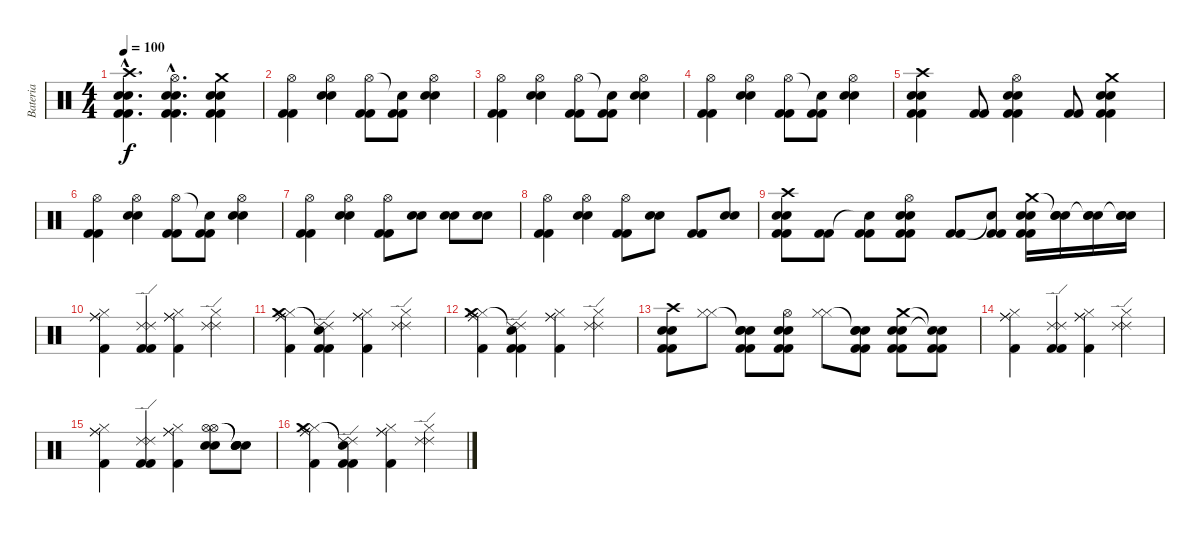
\track ("Bateria" "Bateria") {instrument percussion}
\staff {score}
\articulation defaults
\ts (4 4)
\tempo 100
\clef neutral
\ks c
("Crash high (hit)"{hac} "Snare (hit) 2"{hac} "Snare (hit) 2"{hac} "Kick (hit) 2"{hac} "Kick (hit) 2"{hac}).4{d dy f} ("Hi-Hat (open)"{hac} "Snare (hit) 2"{hac} "Snare (hit) 2"{hac} "Kick (hit) 2"{hac} "Kick (hit) 2"{hac}).4{d} ("Crash medium (hit)" "Snare (hit) 2" "Snare (hit) 2" "Kick (hit) 2" "Kick (hit) 2").4 |
("Kick (hit) 2" "Kick (hit) 2" "Hi-Hat (open)").4 ("Electric Snare (hit)" "Electric Snare (hit)" "Hi-Hat (open)").4 ("Kick (hit) 2" "Kick (hit) 2" "Hi-Hat (open)").8 ("Kick (hit) 2" "Kick (hit) 2" "Snare (hit)"{t}).8 ("Electric Snare (hit)" "Electric Snare (hit)" "Hi-Hat (open)").4 |
("Kick (hit) 2" "Kick (hit) 2" "Hi-Hat (open)").4 ("Electric Snare (hit)" "Electric Snare (hit)" "Hi-Hat (open)").4 ("Kick (hit) 2" "Kick (hit) 2" "Hi-Hat (open)").8 ("Kick (hit) 2" "Kick (hit) 2" "Snare (hit)"{t}).8 ("Electric Snare (hit)" "Electric Snare (hit)" "Hi-Hat (open)").4 |
("Kick (hit) 2" "Kick (hit) 2" "Hi-Hat (open)").4 ("Electric Snare (hit)" "Electric Snare (hit)" "Hi-Hat (open)").4 ("Kick (hit) 2" "Kick (hit) 2" "Hi-Hat (open)").8 ("Kick (hit) 2" "Kick (hit) 2" "Snare (hit)"{t}).8 ("Electric Snare (hit)" "Electric Snare (hit)" "Hi-Hat (open)").4 |
("Kick (hit) 2" "Kick (hit) 2" "Snare (hit) 2" "Snare (hit) 2" "Crash high (hit)").4 ("Kick (hit) 2" "Kick (hit) 2").8 ("Kick (hit) 2" "Kick (hit) 2" "Snare (hit) 2" "Snare (hit) 2" "Hi-Hat (open)").4 ("Kick (hit) 2" "Kick (hit) 2").8 ("Kick (hit) 2" "Kick (hit) 2" "Snare (hit) 2" "Snare (hit) 2" "Crash medium (hit)").4 |
("Kick (hit) 2" "Kick (hit) 2" "Hi-Hat (open)").4 ("Electric Snare (hit)" "Electric Snare (hit)" "Hi-Hat (open)").4 ("Kick (hit) 2" "Kick (hit) 2" "Hi-Hat (open)").8 ("Kick (hit) 2" "Kick (hit) 2" "Snare (hit)"{t}).8 ("Electric Snare (hit)" "Electric Snare (hit)" "Hi-Hat (open)").4 |
("Kick (hit) 2" "Kick (hit) 2" "Hi-Hat (open)").4 ("Electric Snare (hit)" "Electric Snare (hit)" "Hi-Hat (open)").4 ("Kick (hit) 2" "Kick (hit) 2" "Hi-Hat (open)").8 ("Snare (hit) 2" "Snare (hit) 2").8 ("Snare (hit) 2" "Snare (hit) 2").8 ("Snare (hit) 2" "Snare (hit) 2").8 |
("Kick (hit) 2" "Kick (hit) 2" "Hi-Hat (open)").4 ("Electric Snare (hit)" "Electric Snare (hit)" "Hi-Hat (open)").4 ("Kick (hit) 2" "Kick (hit) 2" "Hi-Hat (open)").8 ("Snare (hit) 2" "Snare (hit) 2").8 ("Kick (hit) 2" "Kick (hit) 2").8 ("Snare (hit) 2" "Snare (hit) 2").8 |
("Crash high (hit)" "Snare (hit) 2" "Snare (hit) 2" "Kick (hit) 2" "Kick (hit) 2").8 ("Kick (hit) 2" "Kick (hit) 2").8 ("Snare (hit)"{t} "Kick (hit) 2" "Kick (hit) 2").8 ("Hi-Hat (open)" "Snare (hit) 2" "Snare (hit) 2" "Kick (hit) 2" "Kick (hit) 2").8 ("Kick (hit) 2" "Kick (hit) 2").8 ("Snare (hit)"{t} "Kick (hit) 2" "Kick (hit) 2").8 ("Crash medium (hit)" "Snare (hit) 2" "Snare (hit) 2" "Kick (hit) 2" "Kick (hit) 2").16 ("Snare (hit)"{t} "Snare (hit) 2" "Snare (hit) 2").16 ("Snare (hit)"{t} "Snare (hit) 2" "Snare (hit) 2").16 ("Snare (hit)"{t} "Snare (hit) 2" "Snare (hit) 2").16 |
("Ride (middle)" "Ride (middle)" "Hi-Hat (closed)" "Kick (hit) 2").4 ("Kick (hit) 2" "Kick (hit) 2" "Ride (edge) 2" "Ride (edge) 2").4 ("Ride (middle)" "Ride (middle)" "Hi-Hat (closed)" "Kick (hit) 2").4 ("Ride (edge) 2" "Ride (edge) 2" "Hi-Hat (closed)").4 |
("Ride (middle)" "Ride (middle)" "Hi-Hat (closed)" "Kick (hit) 2" "Crash medium (hit)").4 ("Kick (hit) 2" "Kick (hit) 2" "Ride (edge) 2" "Ride (edge) 2" "Snare (hit)"{t}).4 ("Ride (middle)" "Ride (middle)" "Hi-Hat (closed)" "Kick (hit) 2").4 ("Ride (edge) 2" "Ride (edge) 2" "Hi-Hat (closed)").4 |
("Ride (middle)" "Ride (middle)" "Hi-Hat (closed)" "Kick (hit) 2" "Crash medium (hit)").4 ("Kick (hit) 2" "Kick (hit) 2" "Ride (edge) 2" "Ride (edge) 2" "Snare (hit)"{t}).4 ("Ride (middle)" "Ride (middle)" "Hi-Hat (closed)" "Kick (hit) 2").4 ("Ride (edge) 2" "Ride (edge) 2" "Hi-Hat (closed)").4 |
("Crash high (hit)" "Snare (hit) 2" "Snare (hit) 2" "Kick (hit) 2" "Kick (hit) 2").8 ("Hi-Hat (closed)" "Hi-Hat (closed)").8 ("Snare (hit)"{t} "Electric Snare (hit)" "Electric Snare (hit)" "Kick (hit) 2" "Kick (hit) 2").8 ("Hi-Hat (open)" "Snare (hit) 2" "Snare (hit) 2" "Kick (hit) 2" "Kick (hit) 2").8 ("Hi-Hat (closed)" "Hi-Hat (closed)").8 ("Snare (hit)"{t} "Electric Snare (hit)" "Electric Snare (hit)" "Kick (hit) 2" "Kick (hit) 2").8 ("Crash medium (hit)" "Snare (hit) 2" "Snare (hit) 2" "Kick (hit) 2" "Kick (hit) 2").8 ("Snare (hit)"{t} "Snare (hit) 2"{t} "Kick (hit) 2" "Kick (hit) 2").8 |
("Ride (middle)" "Ride (middle)" "Hi-Hat (closed)" "Kick (hit) 2").4 ("Kick (hit) 2" "Kick (hit) 2" "Ride (edge) 2" "Ride (edge) 2").4 ("Ride (middle)" "Ride (middle)" "Hi-Hat (closed)" "Kick (hit) 2").4 ("Ride (edge) 2" "Ride (edge) 2" "Hi-Hat (closed)").4 |
("Ride (middle)" "Ride (middle)" "Hi-Hat (closed)" "Kick (hit) 2").4 ("Kick (hit) 2" "Kick (hit) 2" "Ride (edge) 2" "Ride (edge) 2").4 ("Ride (middle)" "Ride (middle)" "Hi-Hat (closed)" "Kick (hit) 2").4 ("Hi-Hat (open)" "Electric Snare (hit)" "Electric Snare (hit)" "Hi-Hat (open)").8 ("Snare (hit)"{t} "Electric Snare (hit)" "Electric Snare (hit)" "Snare (hit)"{t}).8 |
("Ride (middle)" "Ride (middle)" "Hi-Hat (closed)" "Kick (hit) 2" "Crash medium (hit)").4 ("Kick (hit) 2" "Kick (hit) 2" "Ride (edge) 2" "Ride (edge) 2" "Snare (hit)"{t}).4 ("Ride (middle)" "Ride (middle)" "Hi-Hat (closed)" "Kick (hit) 2").4 ("Ride (edge) 2" "Ride (edge) 2" "Hi-Hat (closed)").4
